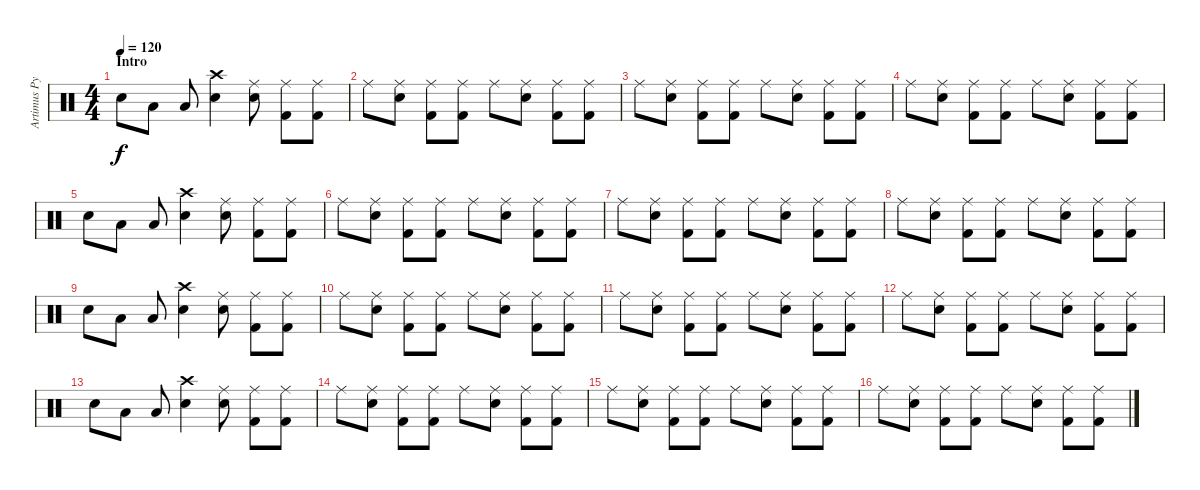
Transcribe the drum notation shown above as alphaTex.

\track ("Artimus Pyle" "Artimus Py") {instrument percussion}
\staff {score}
\articulation defaults
\ts (4 4)
\section ("" "Intro")
\tempo 120
\clef neutral
\ks c "Electric Snare (hit)".8{dy f} "Low Tom (hit)".8 "Low Tom (hit)".8
("Crash high (hit)" "Electric Snare (hit)").4 ("Ride (middle)" "Electric Snare (hit)").8 ("Ride (middle)" "Kick (hit) 2").8 ("Ride (middle)" "Kick (hit) 2").8 |
"Ride (middle)".8 ("Ride (middle)" "Electric Snare (hit)").8 ("Ride (middle)" "Kick (hit) 2").8 ("Ride (middle)" "Kick (hit) 2").8 "Ride (middle)".8 ("Ride (middle)" "Electric Snare (hit)").8 ("Ride (middle)" "Kick (hit) 2").8 ("Ride (middle)" "Kick (hit) 2").8 |
"Ride (middle)".8 ("Ride (middle)" "Electric Snare (hit)").8 ("Ride (middle)" "Kick (hit) 2").8 ("Ride (middle)" "Kick (hit) 2").8 "Ride (middle)".8 ("Ride (middle)" "Electric Snare (hit)").8 ("Ride (middle)" "Kick (hit) 2").8 ("Ride (middle)" "Kick (hit) 2").8 |
"Ride (middle)".8 ("Ride (middle)" "Electric Snare (hit)").8 ("Ride (middle)" "Kick (hit) 2").8 ("Ride (middle)" "Kick (hit) 2").8 "Ride (middle)".8 ("Ride (middle)" "Electric Snare (hit)").8 ("Ride (middle)" "Kick (hit) 2").8 ("Ride (middle)" "Kick (hit) 2").8 |
"Electric Snare (hit)".8 "Low Tom (hit)".8 "Low Tom (hit)".8 ("Crash high (hit)" "Electric Snare (hit)").4 ("Ride (middle)" "Electric Snare (hit)").8 ("Ride (middle)" "Kick (hit) 2").8 ("Ride (middle)" "Kick (hit) 2").8 |
"Ride (middle)".8 ("Ride (middle)" "Electric Snare (hit)").8 ("Ride (middle)" "Kick (hit) 2").8 ("Ride (middle)" "Kick (hit) 2").8 "Ride (middle)".8 ("Ride (middle)" "Electric Snare (hit)").8 ("Ride (middle)" "Kick (hit) 2").8 ("Ride (middle)" "Kick (hit) 2").8 |
"Ride (middle)".8 ("Ride (middle)" "Electric Snare (hit)").8 ("Ride (middle)" "Kick (hit) 2").8 ("Ride (middle)" "Kick (hit) 2").8 "Ride (middle)".8 ("Ride (middle)" "Electric Snare (hit)").8 ("Ride (middle)" "Kick (hit) 2").8 ("Ride (middle)" "Kick (hit) 2").8 |
"Ride (middle)".8 ("Ride (middle)" "Electric Snare (hit)").8 ("Ride (middle)" "Kick (hit) 2").8 ("Ride (middle)" "Kick (hit) 2").8 "Ride (middle)".8 ("Ride (middle)" "Electric Snare (hit)").8 ("Ride (middle)" "Kick (hit) 2").8 ("Ride (middle)" "Kick (hit) 2").8 |
"Electric Snare (hit)".8 "Low Tom (hit)".8 "Low Tom (hit)".8 ("Crash high (hit)" "Electric Snare (hit)").4 ("Ride (middle)" "Electric Snare (hit)").8 ("Ride (middle)" "Kick (hit) 2").8 ("Ride (middle)" "Kick (hit) 2").8 |
"Ride (middle)".8 ("Ride (middle)" "Electric Snare (hit)").8 ("Ride (middle)" "Kick (hit) 2").8 ("Ride (middle)" "Kick (hit) 2").8 "Ride (middle)".8 ("Ride (middle)" "Electric Snare (hit)").8 ("Ride (middle)" "Kick (hit) 2").8 ("Ride (middle)" "Kick (hit) 2").8 |
"Ride (middle)".8 ("Ride (middle)" "Electric Snare (hit)").8 ("Ride (middle)" "Kick (hit) 2").8 ("Ride (middle)" "Kick (hit) 2").8 "Ride (middle)".8 ("Ride (middle)" "Electric Snare (hit)").8 ("Ride (middle)" "Kick (hit) 2").8 ("Ride (middle)" "Kick (hit) 2").8 |
"Ride (middle)".8 ("Ride (middle)" "Electric Snare (hit)").8 ("Ride (middle)" "Kick (hit) 2").8 ("Ride (middle)" "Kick (hit) 2").8 "Ride (middle)".8 ("Ride (middle)" "Electric Snare (hit)").8 ("Ride (middle)" "Kick (hit) 2").8 ("Ride (middle)" "Kick (hit) 2").8 |
"Electric Snare (hit)".8 "Low Tom (hit)".8 "Low Tom (hit)".8 ("Crash high (hit)" "Electric Snare (hit)").4 ("Ride (middle)" "Electric Snare (hit)").8 ("Ride (middle)" "Kick (hit) 2").8 ("Ride (middle)" "Kick (hit) 2").8 |
"Ride (middle)".8 ("Ride (middle)" "Electric Snare (hit)").8 ("Ride (middle)" "Kick (hit) 2").8 ("Ride (middle)" "Kick (hit) 2").8 "Ride (middle)".8 ("Ride (middle)" "Electric Snare (hit)").8 ("Ride (middle)" "Kick (hit) 2").8 ("Ride (middle)" "Kick (hit) 2").8 |
"Ride (middle)".8 ("Ride (middle)" "Electric Snare (hit)").8 ("Ride (middle)" "Kick (hit) 2").8 ("Ride (middle)" "Kick (hit) 2").8 "Ride (middle)".8 ("Ride (middle)" "Electric Snare (hit)").8 ("Ride (middle)" "Kick (hit) 2").8 ("Ride (middle)" "Kick (hit) 2").8 |
"Ride (middle)".8 ("Ride (middle)" "Electric Snare (hit)").8 ("Ride (middle)" "Kick (hit) 2").8 ("Ride (middle)" "Kick (hit) 2").8 "Ride (middle)".8 ("Ride (middle)" "Electric Snare (hit)").8 ("Ride (middle)" "Kick (hit) 2").8 ("Ride (middle)" "Kick (hit) 2").8
